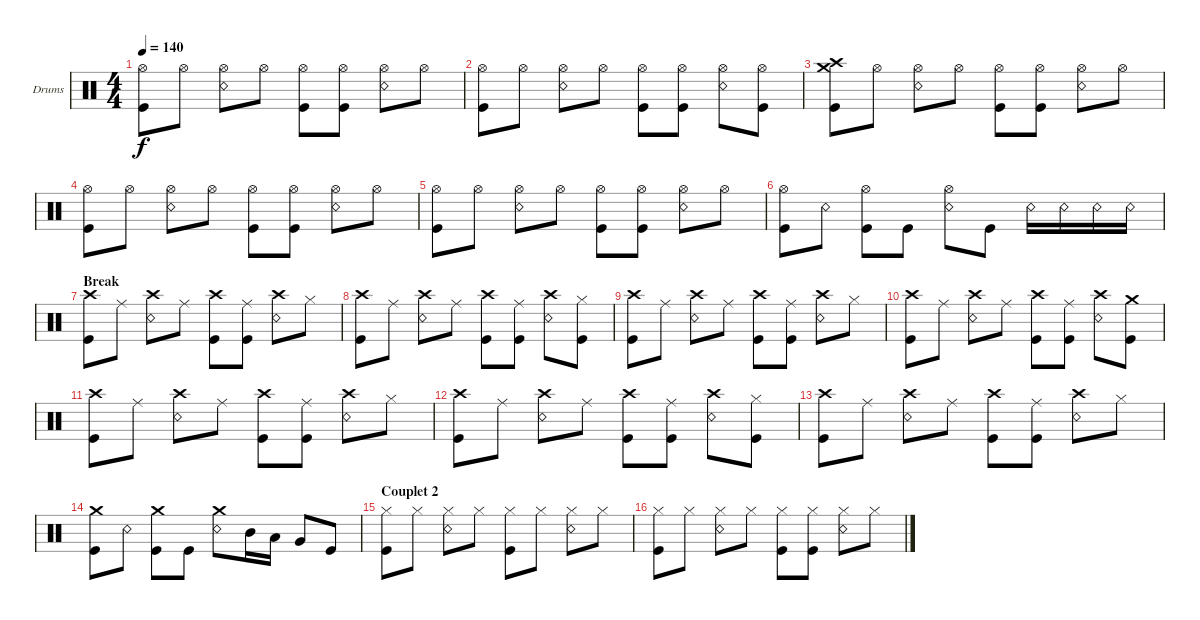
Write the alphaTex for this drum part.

\bracketExtendMode groupsimilarinstruments
\firstSystemTrackNameOrientation horizontal
\otherSystemsTrackNameOrientation horizontal
\track ("Drumkit" "Drums") {instrument percussion}
\staff {score}
\articulation defaults
\ts (4 4)
\tempo 140
\clef neutral
\ks c
("Kick (hit)" "Hi-Hat (open)").8{dy f} "Hi-Hat (open)".8 ("Hi-Hat (open)" "Snare (rim shot)").8 "Hi-Hat (open)".8 ("Hi-Hat (open)" "Kick (hit)").8 ("Hi-Hat (open)" "Kick (hit)").8 ("Snare (rim shot)" "Hi-Hat (open)").8 "Hi-Hat (open)".8 |
("Kick (hit)" "Hi-Hat (open)").8 "Hi-Hat (open)".8 ("Hi-Hat (open)" "Snare (rim shot)").8 "Hi-Hat (open)".8 ("Hi-Hat (open)" "Kick (hit)").8 ("Hi-Hat (open)" "Kick (hit)").8 ("Snare (rim shot)" "Hi-Hat (open)").8 ("Hi-Hat (open)" "Kick (hit)").8 |
("Kick (hit)" "Crash medium (hit)" "Crash high (hit)").8 "Hi-Hat (open)".8 ("Hi-Hat (open)" "Snare (rim shot)").8 "Hi-Hat (open)".8 ("Hi-Hat (open)" "Kick (hit)").8 ("Hi-Hat (open)" "Kick (hit)").8 ("Snare (rim shot)" "Hi-Hat (open)").8 "Hi-Hat (open)".8 |
("Kick (hit)" "Hi-Hat (open)").8 "Hi-Hat (open)".8 ("Hi-Hat (open)" "Snare (rim shot)").8 "Hi-Hat (open)".8 ("Hi-Hat (open)" "Kick (hit)").8 ("Hi-Hat (open)" "Kick (hit)").8 ("Snare (rim shot)" "Hi-Hat (open)").8 "Hi-Hat (open)".8 |
("Kick (hit)" "Hi-Hat (open)").8 "Hi-Hat (open)".8 ("Hi-Hat (open)" "Snare (rim shot)").8 "Hi-Hat (open)".8 ("Hi-Hat (open)" "Kick (hit)").8 ("Hi-Hat (open)" "Kick (hit)").8 ("Snare (rim shot)" "Hi-Hat (open)").8 "Hi-Hat (open)".8 |
("Kick (hit)" "Hi-Hat (open)").8 "Snare (rim shot)".8 ("Kick (hit)" "Hi-Hat (open)").8 "Kick (hit)".8 ("Snare (rim shot)" "Hi-Hat (open)").8 "Kick (hit)".8 "Snare (rim shot)".16 "Snare (rim shot)".16 "Snare (rim shot)".16 "Snare (rim shot)".16 |
\section ("" "Break")
("Kick (hit)" "Crash high (hit)").8 "Ride (middle)".8 ("Crash high (hit)" "Snare (rim shot)").8 "Ride (middle)".8 ("Crash high (hit)" "Kick (hit)").8 ("Kick (hit)" "Ride (middle)").8 ("Crash high (hit)" "Snare (rim shot)").8 "Hi-Hat (closed)".8 |
("Kick (hit)" "Crash high (hit)").8 "Ride (middle)".8 ("Crash high (hit)" "Snare (rim shot)").8 "Ride (middle)".8 ("Crash high (hit)" "Kick (hit)").8 ("Kick (hit)" "Ride (middle)").8 ("Crash high (hit)" "Snare (rim shot)").8 ("Hi-Hat (closed)" "Kick (hit)").8 |
("Kick (hit)" "Crash high (hit)").8 "Ride (middle)".8 ("Crash high (hit)" "Snare (rim shot)").8 "Ride (middle)".8 ("Crash high (hit)" "Kick (hit)").8 ("Kick (hit)" "Ride (middle)").8 ("Crash high (hit)" "Snare (rim shot)").8 "Hi-Hat (closed)".8 |
("Kick (hit)" "Crash high (hit)").8 "Ride (middle)".8 ("Crash high (hit)" "Snare (rim shot)").8 "Ride (middle)".8 ("Crash high (hit)" "Kick (hit)").8 ("Kick (hit)" "Ride (middle)").8 ("Crash high (hit)" "Snare (rim shot)").8 ("Kick (hit)" "Crash medium (hit)").8 |
("Kick (hit)" "Crash high (hit)").8 "Ride (middle)".8 ("Crash high (hit)" "Snare (rim shot)").8 "Ride (middle)".8 ("Crash high (hit)" "Kick (hit)").8 ("Kick (hit)" "Ride (middle)").8 ("Crash high (hit)" "Snare (rim shot)").8 "Hi-Hat (closed)".8 |
("Kick (hit)" "Crash high (hit)").8 "Ride (middle)".8 ("Crash high (hit)" "Snare (rim shot)").8 "Ride (middle)".8 ("Crash high (hit)" "Kick (hit)").8 ("Kick (hit)" "Ride (middle)").8 ("Crash high (hit)" "Snare (rim shot)").8 ("Hi-Hat (closed)" "Kick (hit)").8 |
("Kick (hit)" "Crash high (hit)").8 "Ride (middle)".8 ("Crash high (hit)" "Snare (rim shot)").8 "Ride (middle)".8 ("Crash high (hit)" "Kick (hit)").8 ("Kick (hit)" "Ride (middle)").8 ("Crash high (hit)" "Snare (rim shot)").8 "Hi-Hat (closed)".8 |
("Kick (hit)" "Crash medium (hit)").8 "Snare (rim shot)".8 ("Kick (hit)" "Crash medium (hit)").8 "Kick (hit)".8 ("Snare (rim shot)" "Crash medium (hit)").8 "Mid Tom (hit)".16 "Low Tom (hit)".16 "Very Low Tom (hit)".8 "Kick (hit)".8 |
\section ("" "Couplet 2")
("Kick (hit)" "Hi-Hat (closed)").8 "Hi-Hat (closed)".8 ("Hi-Hat (closed)" "Snare (rim shot)").8 "Hi-Hat (closed)".8 ("Hi-Hat (closed)" "Kick (hit)").8 "Hi-Hat (closed)".8 ("Hi-Hat (closed)" "Snare (rim shot)").8 "Hi-Hat (closed)".8 |
("Kick (hit)" "Hi-Hat (closed)").8 "Hi-Hat (closed)".8 ("Hi-Hat (closed)" "Snare (rim shot)").8 "Hi-Hat (closed)".8 ("Hi-Hat (closed)" "Kick (hit)").8 ("Hi-Hat (closed)" "Kick (hit)").8 ("Hi-Hat (closed)" "Snare (rim shot)").8 "Hi-Hat (closed)".8
